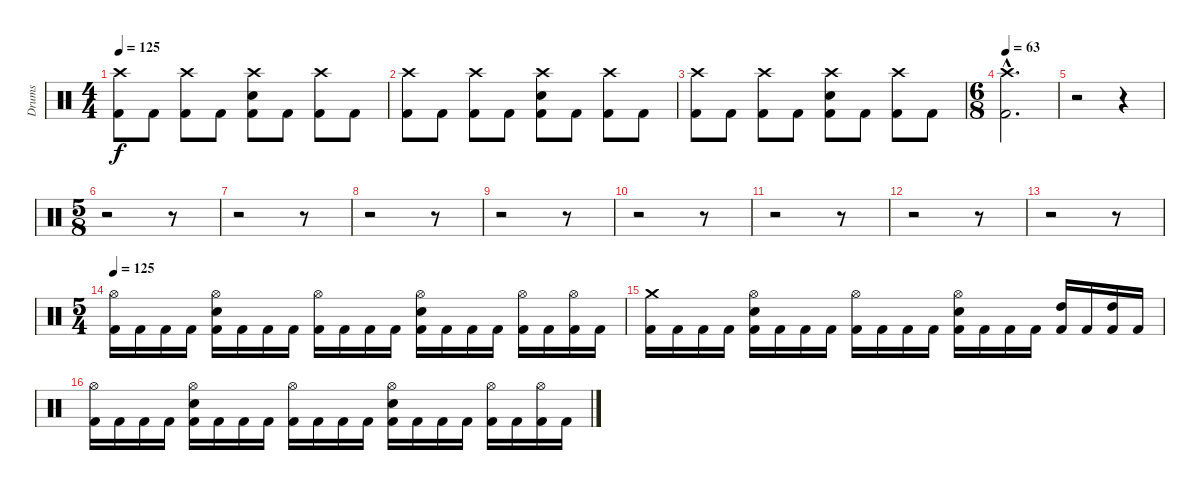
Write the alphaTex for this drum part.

\track ("Drums" "Drums") {instrument percussion}
\staff {score}
\articulation defaults
\ts (4 4)
\tempo 125
\clef neutral
\ks c
("Crash high (hit)" "Kick (hit) 2").8{dy f} "Kick (hit) 2".8 ("Crash high (hit)" "Kick (hit) 2").8 "Kick (hit) 2".8 ("Crash high (hit)" "Electric Snare (hit)" "Kick (hit) 2").8 "Kick (hit) 2".8 ("Crash high (hit)" "Kick (hit) 2").8 "Kick (hit) 2".8 |
("Crash high (hit)" "Kick (hit) 2").8 "Kick (hit) 2".8 ("Crash high (hit)" "Kick (hit) 2").8 "Kick (hit) 2".8 ("Crash high (hit)" "Electric Snare (hit)" "Kick (hit) 2").8 "Kick (hit) 2".8 ("Crash high (hit)" "Kick (hit) 2").8 "Kick (hit) 2".8 |
("Crash high (hit)" "Kick (hit) 2").8 "Kick (hit) 2".8 ("Crash high (hit)" "Kick (hit) 2").8 "Kick (hit) 2".8 ("Crash high (hit)" "Electric Snare (hit)" "Kick (hit) 2").8 "Kick (hit) 2".8 ("Crash high (hit)" "Kick (hit) 2").8 "Kick (hit) 2".8 |
\ts (6 8)
\tempo 63
("Crash high (hit)"{hac} "Kick (hit) 2"{hac}).2{d} |
r.2 r.4 |
\ts (5 8)
r.2 r.8 |
r.2 r.8 |
r.2 r.8 |
r.2 r.8 |
r.2 r.8 |
r.2 r.8 |
r.2 r.8 |
r.2 r.8 |
\ts (5 4)
\tempo 125
("Hi-Hat (open)" "Kick (hit) 2").16 "Kick (hit) 2".16 "Kick (hit) 2".16 "Kick (hit) 2".16 ("Hi-Hat (open)" "Electric Snare (hit)" "Kick (hit) 2").16 "Kick (hit) 2".16 "Kick (hit) 2".16 "Kick (hit) 2".16 ("Hi-Hat (open)" "Kick (hit) 2").16 "Kick (hit) 2".16 "Kick (hit) 2".16 "Kick (hit) 2".16 ("Hi-Hat (open)" "Electric Snare (hit)" "Kick (hit) 2").16 "Kick (hit) 2".16 "Kick (hit) 2".16 "Kick (hit) 2".16 ("Hi-Hat (open)" "Kick (hit) 2").16 "Kick (hit) 2".16 ("Hi-Hat (open)" "Kick (hit) 2").16 "Kick (hit) 2".16 |
("Crash medium (hit)" "Kick (hit) 2").16 "Kick (hit) 2".16 "Kick (hit) 2".16 "Kick (hit) 2".16 ("Hi-Hat (open)" "Electric Snare (hit)" "Kick (hit) 2").16 "Kick (hit) 2".16 "Kick (hit) 2".16 "Kick (hit) 2".16 ("Hi-Hat (open)" "Kick (hit) 2").16 "Kick (hit) 2".16 "Kick (hit) 2".16 "Kick (hit) 2".16 ("Hi-Hat (open)" "Electric Snare (hit)" "Kick (hit) 2").16 "Kick (hit) 2".16 "Kick (hit) 2".16 "Kick (hit) 2".16 ("High Tom (hit)" "Kick (hit) 2").16 "Kick (hit) 2".16 ("High Tom (hit)" "Kick (hit) 2").16 "Kick (hit) 2".16 |
("Hi-Hat (open)" "Kick (hit) 2").16 "Kick (hit) 2".16 "Kick (hit) 2".16 "Kick (hit) 2".16 ("Hi-Hat (open)" "Electric Snare (hit)" "Kick (hit) 2").16 "Kick (hit) 2".16 "Kick (hit) 2".16 "Kick (hit) 2".16 ("Hi-Hat (open)" "Kick (hit) 2").16 "Kick (hit) 2".16 "Kick (hit) 2".16 "Kick (hit) 2".16 ("Hi-Hat (open)" "Electric Snare (hit)" "Kick (hit) 2").16 "Kick (hit) 2".16 "Kick (hit) 2".16 "Kick (hit) 2".16 ("Hi-Hat (open)" "Kick (hit) 2").16 "Kick (hit) 2".16 ("Hi-Hat (open)" "Kick (hit) 2").16 "Kick (hit) 2".16
